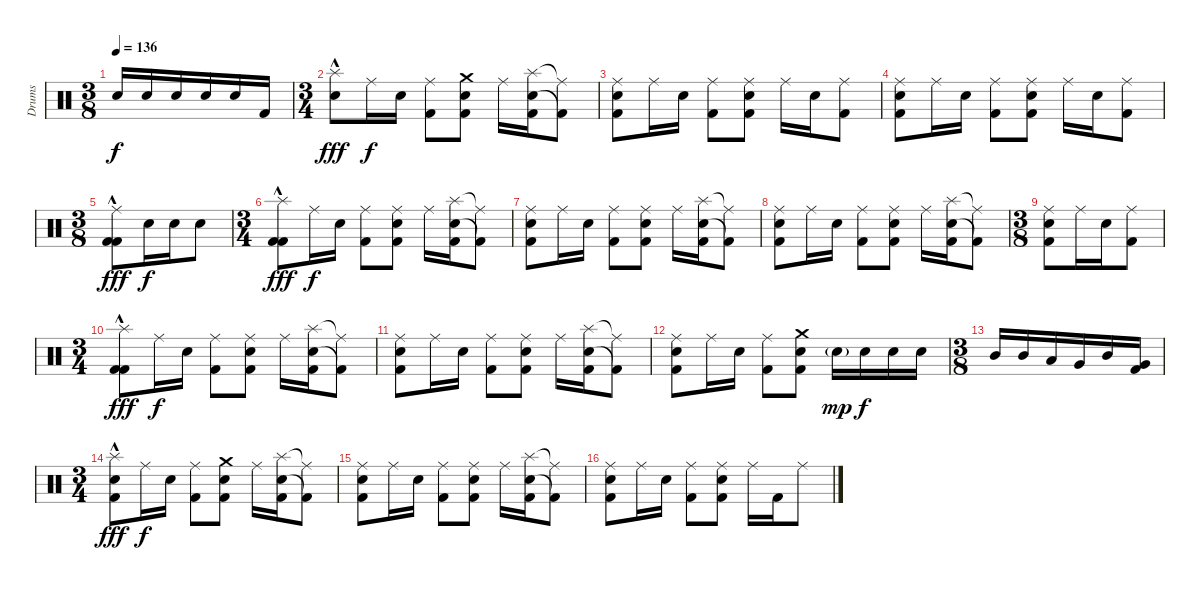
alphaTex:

\track ("Drums" "Drums") {instrument percussion}
\staff {score}
\articulation defaults
\ts (3 8)
\tempo 136
\clef neutral
\ks c "Electric Snare (hit)".16{dy f} "Electric Snare (hit)".16 "Electric Snare (hit)".16 "Electric Snare (hit)".16 "Electric Snare (hit)".16 "Kick (hit) 2".16
|
\ts (3 4)
("Splash (hit)" "Electric Snare (hit)"{hac}).8{dy fff} "Ride (middle)".16{dy f} "Electric Snare (hit)".16 ("Ride (middle)" "Kick (hit) 2").8 ("Crash medium (hit)" "Electric Snare (hit)" "Kick (hit) 2").8 "Ride (middle)".16 ("Splash (hit)" "Electric Snare (hit)" "Kick (hit) 2").16 ("Ride (middle)"{t} "Kick (hit) 2"{t}).8 |
("Ride (middle)" "Electric Snare (hit)" "Kick (hit) 2").8 "Ride (middle)".16 "Electric Snare (hit)".16 ("Ride (middle)" "Kick (hit) 2").8 ("Ride (middle)" "Electric Snare (hit)" "Kick (hit) 2").8 "Ride (middle)".16 "Electric Snare (hit)".16 ("Ride (middle)" "Kick (hit) 2").8 |
("Ride (middle)" "Electric Snare (hit)" "Kick (hit) 2").8 "Ride (middle)".16 "Electric Snare (hit)".16 ("Ride (middle)" "Kick (hit) 2").8 ("Ride (middle)" "Electric Snare (hit)" "Kick (hit) 2").8 "Ride (middle)".16 "Electric Snare (hit)".16 ("Ride (middle)" "Kick (hit) 2").8 |
\ts (3 8)
("Ride (middle)" "Kick (hit) 2"{hac} "Kick (hit) 2"{hac}).8{dy fff} "Electric Snare (hit)".16{dy f} "Electric Snare (hit)".16 "Electric Snare (hit)".8 |
\ts (3 4)
("Splash (hit)" "Kick (hit) 2"{hac} "Kick (hit) 2"{hac}).8{dy fff} "Ride (middle)".16{dy f} "Electric Snare (hit)".16 ("Ride (middle)" "Kick (hit) 2").8 ("Ride (middle)" "Electric Snare (hit)" "Kick (hit) 2").8 "Ride (middle)".16 ("Splash (hit)" "Electric Snare (hit)" "Kick (hit) 2").16 ("Ride (middle)"{t} "Kick (hit) 2"{t}).8 |
("Ride (middle)" "Electric Snare (hit)" "Kick (hit) 2").8 "Ride (middle)".16 "Electric Snare (hit)".16 ("Ride (middle)" "Kick (hit) 2").8 ("Ride (middle)" "Electric Snare (hit)" "Kick (hit) 2").8 "Ride (middle)".16 ("Splash (hit)" "Electric Snare (hit)" "Kick (hit) 2").16 ("Ride (middle)"{t} "Kick (hit) 2"{t}).8 |
("Ride (middle)" "Electric Snare (hit)" "Kick (hit) 2").8 "Ride (middle)".16 "Electric Snare (hit)".16 ("Ride (middle)" "Kick (hit) 2").8 ("Ride (middle)" "Electric Snare (hit)" "Kick (hit) 2").8 "Ride (middle)".16 ("Splash (hit)" "Electric Snare (hit)" "Kick (hit) 2").16 ("Ride (middle)"{t} "Kick (hit) 2"{t}).8 |
\ts (3 8)
("Ride (middle)" "Electric Snare (hit)" "Kick (hit) 2").8 "Ride (middle)".16 "Electric Snare (hit)".16 ("Ride (middle)" "Kick (hit) 2").8 |
\ts (3 4)
("Splash (hit)" "Kick (hit) 2"{hac} "Kick (hit) 2"{hac}).8{dy fff} "Ride (middle)".16{dy f} "Electric Snare (hit)".16 ("Ride (middle)" "Kick (hit) 2").8 ("Ride (middle)" "Electric Snare (hit)" "Kick (hit) 2").8 "Ride (middle)".16 ("Splash (hit)" "Electric Snare (hit)" "Kick (hit) 2").16 ("Ride (middle)"{t} "Kick (hit) 2"{t}).8 |
("Ride (middle)" "Electric Snare (hit)" "Kick (hit) 2").8 "Ride (middle)".16 "Electric Snare (hit)".16 ("Ride (middle)" "Kick (hit) 2").8 ("Ride (middle)" "Electric Snare (hit)" "Kick (hit) 2").8 "Ride (middle)".16 ("Splash (hit)" "Electric Snare (hit)" "Kick (hit) 2").16 ("Ride (middle)"{t} "Kick (hit) 2"{t}).8 |
("Ride (middle)" "Electric Snare (hit)" "Kick (hit) 2").8 "Ride (middle)".16 "Electric Snare (hit)".16 ("Ride (middle)" "Kick (hit) 2").8 ("Crash medium (hit)" "Electric Snare (hit)" "Kick (hit) 2").8 "Electric Snare (hit)"{g}.16{dy mp} "Electric Snare (hit)".16{dy f} "Electric Snare (hit)".16 "Electric Snare (hit)".16 |
\ts (3 8)
"Mid Tom (hit)".16 "Mid Tom (hit)".16 "Low Tom (hit)".16 "Very Low Tom (hit)".16 "Mid Tom (hit)".16 ("Very Low Tom (hit)" "Kick (hit) 2").16 |
\ts (3 4)
("Splash (hit)" "Electric Snare (hit)"{hac} "Kick (hit) 2").8{dy fff} "Ride (middle)".16{dy f} "Electric Snare (hit)".16 ("Ride (middle)" "Kick (hit) 2").8 ("Crash medium (hit)" "Electric Snare (hit)" "Kick (hit) 2").8 "Ride (middle)".16 ("Splash (hit)" "Electric Snare (hit)" "Kick (hit) 2").16 ("Ride (middle)"{t} "Kick (hit) 2"{t}).8 |
("Ride (middle)" "Electric Snare (hit)" "Kick (hit) 2").8 "Ride (middle)".16 "Electric Snare (hit)".16 ("Ride (middle)" "Kick (hit) 2").8 ("Ride (middle)" "Electric Snare (hit)" "Kick (hit) 2").8 "Ride (middle)".16 ("Splash (hit)" "Electric Snare (hit)" "Kick (hit) 2").16 ("Ride (middle)"{t} "Kick (hit) 2"{t}).8 |
("Ride (middle)" "Electric Snare (hit)" "Kick (hit) 2").8 "Ride (middle)".16 "Electric Snare (hit)".16 ("Ride (middle)" "Kick (hit) 2").8 ("Ride (middle)" "Electric Snare (hit)" "Kick (hit) 2").8 "Ride (middle)".16 "Kick (hit) 2".16 "Ride (middle)".8
